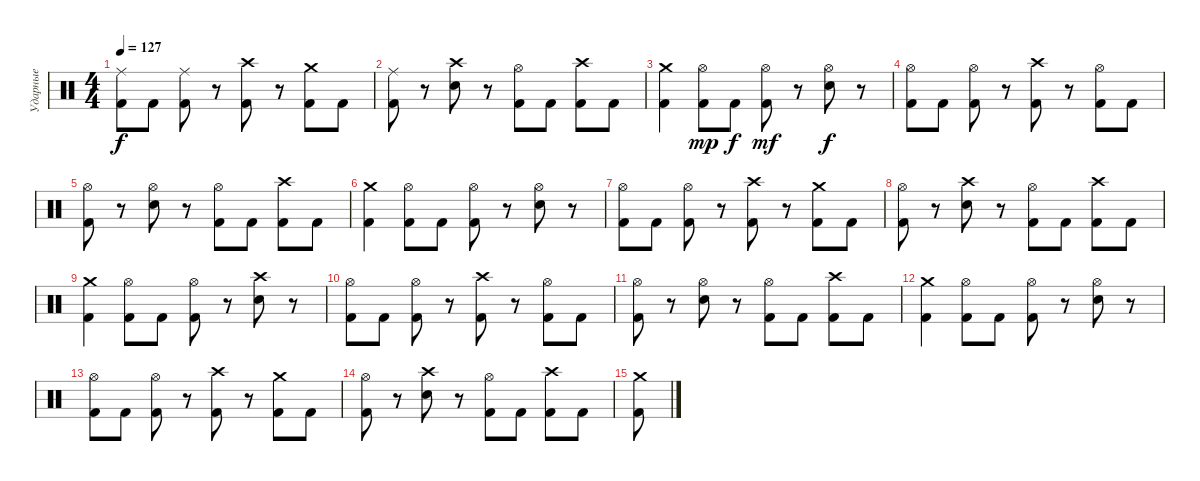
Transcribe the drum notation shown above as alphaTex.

\track ("Ударные" "Ударные") {instrument percussion}
\staff {score}
\articulation defaults
\ts (4 4)
\tempo 127
\clef neutral
\ks c
("Ride (middle)" "Kick (hit) 2").8{dy f} "Kick (hit) 2".8 ("Ride (middle)" "Kick (hit) 2").8 r.8 ("Crash high (hit)" "Kick (hit) 2").8 r.8 ("Crash medium (hit)" "Kick (hit) 2").8 "Kick (hit) 2".8 |
("Ride (middle)" "Kick (hit) 2").8 r.8 ("Crash high (hit)" "Electric Snare (hit)").8 r.8 ("Hi-Hat (open)" "Kick (hit) 2").8 "Kick (hit) 2".8 ("Kick (hit) 2" "Crash high (hit)").8 "Kick (hit) 2".8 |
("Crash medium (hit)" "Kick (hit) 2").4 ("Hi-Hat (open)" "Kick (hit) 2").8{dy mp} "Kick (hit) 2".8{dy f} ("Hi-Hat (open)" "Kick (hit) 2").8{dy mf} r.8 ("Hi-Hat (open)" "Electric Snare (hit)").8{dy f} r.8 |
("Hi-Hat (open)" "Kick (hit) 2").8 "Kick (hit) 2".8 ("Hi-Hat (open)" "Kick (hit) 2").8 r.8 ("Crash high (hit)" "Kick (hit) 2").8 r.8 ("Hi-Hat (open)" "Kick (hit) 2").8 "Kick (hit) 2".8 |
("Hi-Hat (open)" "Kick (hit) 2").8 r.8 ("Hi-Hat (open)" "Electric Snare (hit)").8 r.8 ("Hi-Hat (open)" "Kick (hit) 2").8 "Kick (hit) 2".8 ("Kick (hit) 2" "Crash high (hit)").8 "Kick (hit) 2".8 |
("Crash medium (hit)" "Kick (hit) 2").4 ("Hi-Hat (open)" "Kick (hit) 2").8 "Kick (hit) 2".8 ("Hi-Hat (open)" "Kick (hit) 2").8 r.8 ("Hi-Hat (open)" "Electric Snare (hit)").8 r.8 |
("Hi-Hat (open)" "Kick (hit) 2").8 "Kick (hit) 2".8 ("Hi-Hat (open)" "Kick (hit) 2").8 r.8 ("Crash high (hit)" "Kick (hit) 2").8 r.8 ("Crash medium (hit)" "Kick (hit) 2").8 "Kick (hit) 2".8 |
("Hi-Hat (open)" "Kick (hit) 2").8 r.8 ("Crash high (hit)" "Electric Snare (hit)").8 r.8 ("Hi-Hat (open)" "Kick (hit) 2").8 "Kick (hit) 2".8 ("Kick (hit) 2" "Crash high (hit)").8 "Kick (hit) 2".8 |
("Crash medium (hit)" "Kick (hit) 2").4 ("Hi-Hat (open)" "Kick (hit) 2").8 "Kick (hit) 2".8 ("Hi-Hat (open)" "Kick (hit) 2").8 r.8 ("Crash high (hit)" "Electric Snare (hit)").8 r.8 |
("Hi-Hat (open)" "Kick (hit) 2").8 "Kick (hit) 2".8 ("Hi-Hat (open)" "Kick (hit) 2").8 r.8 ("Crash high (hit)" "Kick (hit) 2").8 r.8 ("Hi-Hat (open)" "Kick (hit) 2").8 "Kick (hit) 2".8 |
("Hi-Hat (open)" "Kick (hit) 2").8 r.8 ("Hi-Hat (open)" "Electric Snare (hit)").8 r.8 ("Hi-Hat (open)" "Kick (hit) 2").8 "Kick (hit) 2".8 ("Kick (hit) 2" "Crash high (hit)").8 "Kick (hit) 2".8 |
("Crash medium (hit)" "Kick (hit) 2").4 ("Hi-Hat (open)" "Kick (hit) 2").8 "Kick (hit) 2".8 ("Hi-Hat (open)" "Kick (hit) 2").8 r.8 ("Hi-Hat (open)" "Electric Snare (hit)").8 r.8 |
("Hi-Hat (open)" "Kick (hit) 2").8 "Kick (hit) 2".8 ("Hi-Hat (open)" "Kick (hit) 2").8 r.8 ("Crash high (hit)" "Kick (hit) 2").8 r.8 ("Crash medium (hit)" "Kick (hit) 2").8 "Kick (hit) 2".8 |
("Hi-Hat (open)" "Kick (hit) 2").8 r.8 ("Crash high (hit)" "Electric Snare (hit)").8 r.8 ("Hi-Hat (open)" "Kick (hit) 2").8 "Kick (hit) 2".8 ("Kick (hit) 2" "Crash high (hit)").8 "Kick (hit) 2".8 |
("Crash medium (hit)" "Kick (hit) 2").8
